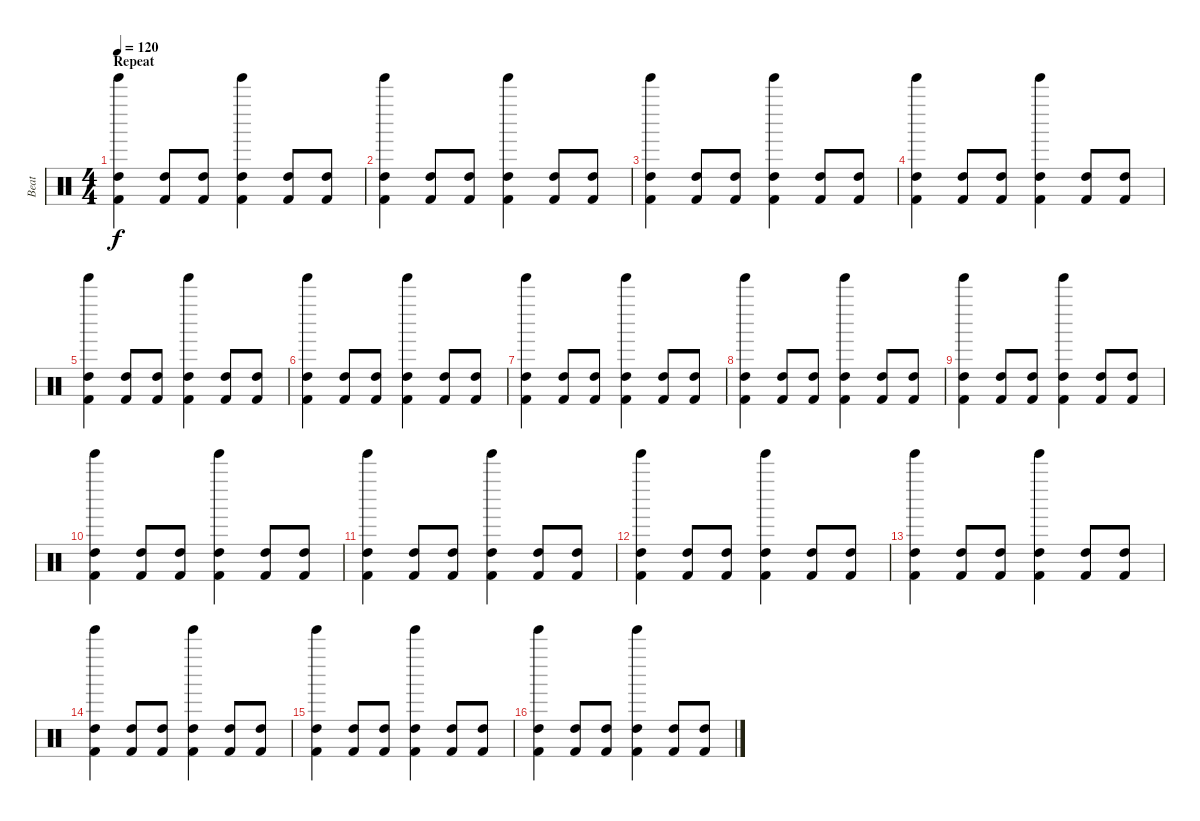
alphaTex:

\track ("Beat" "Beat") {instrument percussion}
\staff {score}
\articulation defaults
\ts (4 4)
\section ("" "Repeat")
\tempo 120
\clef neutral
\ks c
("High Tom (hit)" "Kick (hit) 2" "Tinkle Bell (hit)").4{dy f} ("High Tom (hit)" "Kick (hit) 2").8 ("High Tom (hit)" "Kick (hit) 2").8 ("High Tom (hit)" "Kick (hit) 2" "Tinkle Bell (hit)").4 ("High Tom (hit)" "Kick (hit) 2").8 ("High Tom (hit)" "Kick (hit) 2").8 |
("High Tom (hit)" "Kick (hit) 2" "Tinkle Bell (hit)").4 ("High Tom (hit)" "Kick (hit) 2").8 ("High Tom (hit)" "Kick (hit) 2").8 ("High Tom (hit)" "Kick (hit) 2" "Tinkle Bell (hit)").4 ("High Tom (hit)" "Kick (hit) 2").8 ("High Tom (hit)" "Kick (hit) 2").8 |
("High Tom (hit)" "Kick (hit) 2" "Tinkle Bell (hit)").4 ("High Tom (hit)" "Kick (hit) 2").8 ("High Tom (hit)" "Kick (hit) 2").8 ("High Tom (hit)" "Kick (hit) 2" "Tinkle Bell (hit)").4 ("High Tom (hit)" "Kick (hit) 2").8 ("High Tom (hit)" "Kick (hit) 2").8 |
("High Tom (hit)" "Kick (hit) 2" "Tinkle Bell (hit)").4 ("High Tom (hit)" "Kick (hit) 2").8 ("High Tom (hit)" "Kick (hit) 2").8 ("High Tom (hit)" "Kick (hit) 2" "Tinkle Bell (hit)").4 ("High Tom (hit)" "Kick (hit) 2").8 ("High Tom (hit)" "Kick (hit) 2").8 |
("High Tom (hit)" "Kick (hit) 2" "Tinkle Bell (hit)").4 ("High Tom (hit)" "Kick (hit) 2").8 ("High Tom (hit)" "Kick (hit) 2").8 ("High Tom (hit)" "Kick (hit) 2" "Tinkle Bell (hit)").4 ("High Tom (hit)" "Kick (hit) 2").8 ("High Tom (hit)" "Kick (hit) 2").8 |
("High Tom (hit)" "Kick (hit) 2" "Tinkle Bell (hit)").4 ("High Tom (hit)" "Kick (hit) 2").8 ("High Tom (hit)" "Kick (hit) 2").8 ("High Tom (hit)" "Kick (hit) 2" "Tinkle Bell (hit)").4 ("High Tom (hit)" "Kick (hit) 2").8 ("High Tom (hit)" "Kick (hit) 2").8 |
("High Tom (hit)" "Kick (hit) 2" "Tinkle Bell (hit)").4 ("High Tom (hit)" "Kick (hit) 2").8 ("High Tom (hit)" "Kick (hit) 2").8 ("High Tom (hit)" "Kick (hit) 2" "Tinkle Bell (hit)").4 ("High Tom (hit)" "Kick (hit) 2").8 ("High Tom (hit)" "Kick (hit) 2").8 |
("High Tom (hit)" "Kick (hit) 2" "Tinkle Bell (hit)").4 ("High Tom (hit)" "Kick (hit) 2").8 ("High Tom (hit)" "Kick (hit) 2").8 ("High Tom (hit)" "Kick (hit) 2" "Tinkle Bell (hit)").4 ("High Tom (hit)" "Kick (hit) 2").8 ("High Tom (hit)" "Kick (hit) 2").8 |
("High Tom (hit)" "Kick (hit) 2" "Tinkle Bell (hit)").4 ("High Tom (hit)" "Kick (hit) 2").8 ("High Tom (hit)" "Kick (hit) 2").8 ("High Tom (hit)" "Kick (hit) 2" "Tinkle Bell (hit)").4 ("High Tom (hit)" "Kick (hit) 2").8 ("High Tom (hit)" "Kick (hit) 2").8 |
("High Tom (hit)" "Kick (hit) 2" "Tinkle Bell (hit)").4 ("High Tom (hit)" "Kick (hit) 2").8 ("High Tom (hit)" "Kick (hit) 2").8 ("High Tom (hit)" "Kick (hit) 2" "Tinkle Bell (hit)").4 ("High Tom (hit)" "Kick (hit) 2").8 ("High Tom (hit)" "Kick (hit) 2").8 |
("High Tom (hit)" "Kick (hit) 2" "Tinkle Bell (hit)").4 ("High Tom (hit)" "Kick (hit) 2").8 ("High Tom (hit)" "Kick (hit) 2").8 ("High Tom (hit)" "Kick (hit) 2" "Tinkle Bell (hit)").4 ("High Tom (hit)" "Kick (hit) 2").8 ("High Tom (hit)" "Kick (hit) 2").8 |
("High Tom (hit)" "Kick (hit) 2" "Tinkle Bell (hit)").4 ("High Tom (hit)" "Kick (hit) 2").8 ("High Tom (hit)" "Kick (hit) 2").8 ("High Tom (hit)" "Kick (hit) 2" "Tinkle Bell (hit)").4 ("High Tom (hit)" "Kick (hit) 2").8 ("High Tom (hit)" "Kick (hit) 2").8 |
("High Tom (hit)" "Kick (hit) 2" "Tinkle Bell (hit)").4 ("High Tom (hit)" "Kick (hit) 2").8 ("High Tom (hit)" "Kick (hit) 2").8 ("High Tom (hit)" "Kick (hit) 2" "Tinkle Bell (hit)").4 ("High Tom (hit)" "Kick (hit) 2").8 ("High Tom (hit)" "Kick (hit) 2").8 |
("High Tom (hit)" "Kick (hit) 2" "Tinkle Bell (hit)").4 ("High Tom (hit)" "Kick (hit) 2").8 ("High Tom (hit)" "Kick (hit) 2").8 ("High Tom (hit)" "Kick (hit) 2" "Tinkle Bell (hit)").4 ("High Tom (hit)" "Kick (hit) 2").8 ("High Tom (hit)" "Kick (hit) 2").8 |
("High Tom (hit)" "Kick (hit) 2" "Tinkle Bell (hit)").4 ("High Tom (hit)" "Kick (hit) 2").8 ("High Tom (hit)" "Kick (hit) 2").8 ("High Tom (hit)" "Kick (hit) 2" "Tinkle Bell (hit)").4 ("High Tom (hit)" "Kick (hit) 2").8 ("High Tom (hit)" "Kick (hit) 2").8 |
("High Tom (hit)" "Kick (hit) 2" "Tinkle Bell (hit)").4 ("High Tom (hit)" "Kick (hit) 2").8 ("High Tom (hit)" "Kick (hit) 2").8 ("High Tom (hit)" "Kick (hit) 2" "Tinkle Bell (hit)").4 ("High Tom (hit)" "Kick (hit) 2").8 ("High Tom (hit)" "Kick (hit) 2").8
